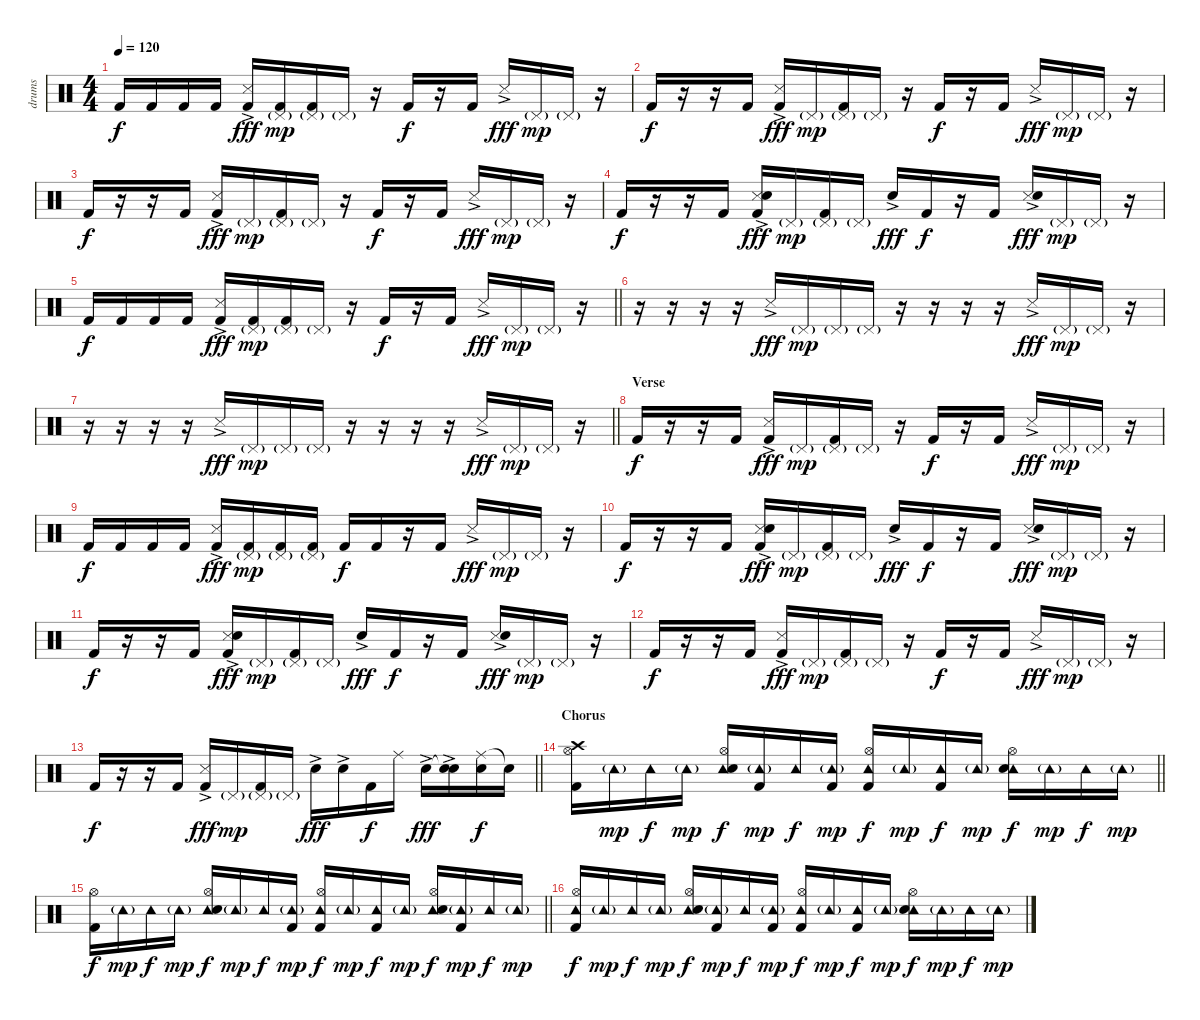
\track ("drums" "drums") {instrument percussion}
\staff {score}
\articulation defaults
\ts (4 4)
\tempo 120
\clef neutral
\ks c "Kick (hit) 2".16{dy f} "Kick (hit) 2".16 "Kick (hit) 2".16 "Kick (hit) 2".16
("Kick (hit) 2" "Snare (side stick) 3"{ac}).16{dy fff} ("Kick (hit) 2" "Pedal Hi-Hat (hit)"{g}).16{dy mp} ("Kick (hit) 2" "Pedal Hi-Hat (hit)"{g}).16 "Pedal Hi-Hat (hit)"{g}.16 r.16 "Kick (hit) 2".16{dy f} r.16 "Kick (hit) 2".16 "Snare (side stick) 3"{ac}.16{dy fff} "Pedal Hi-Hat (hit)"{g}.16{dy mp} "Pedal Hi-Hat (hit)"{g}.16 r.16 |
"Kick (hit) 2".16{dy f} r.16 r.16 "Kick (hit) 2".16 ("Kick (hit) 2" "Snare (side stick) 3"{ac}).16{dy fff} "Pedal Hi-Hat (hit)"{g}.16{dy mp} ("Kick (hit) 2" "Pedal Hi-Hat (hit)"{g}).16 "Pedal Hi-Hat (hit)"{g}.16 r.16 "Kick (hit) 2".16{dy f} r.16 "Kick (hit) 2".16 "Snare (side stick) 3"{ac}.16{dy fff} "Pedal Hi-Hat (hit)"{g}.16{dy mp} "Pedal Hi-Hat (hit)"{g}.16 r.16 |
"Kick (hit) 2".16{dy f} r.16 r.16 "Kick (hit) 2".16 ("Kick (hit) 2" "Snare (side stick) 3"{ac}).16{dy fff} "Pedal Hi-Hat (hit)"{g}.16{dy mp} ("Kick (hit) 2" "Pedal Hi-Hat (hit)"{g}).16 "Pedal Hi-Hat (hit)"{g}.16 r.16 "Kick (hit) 2".16{dy f} r.16 "Kick (hit) 2".16 "Snare (side stick) 3"{ac}.16{dy fff} "Pedal Hi-Hat (hit)"{g}.16{dy mp} "Pedal Hi-Hat (hit)"{g}.16 r.16 |
"Kick (hit) 2".16{dy f} r.16 r.16 "Kick (hit) 2".16 ("Kick (hit) 2" "Snare (side stick) 3"{ac} "Hand Clap (hit)"{ac}).16{dy fff} "Pedal Hi-Hat (hit)"{g}.16{dy mp} ("Kick (hit) 2" "Pedal Hi-Hat (hit)"{g}).16 "Pedal Hi-Hat (hit)"{g}.16 "Hand Clap (hit)"{ac}.16{dy fff} "Kick (hit) 2".16{dy f} r.16 "Kick (hit) 2".16 ("Snare (side stick) 3"{ac} "Hand Clap (hit)"{ac}).16{dy fff} "Pedal Hi-Hat (hit)"{g}.16{dy mp} "Pedal Hi-Hat (hit)"{g}.16 r.16 |
\barLineRight lightlight "Kick (hit) 2".16{dy f volume 16 balance 8} "Kick (hit) 2".16 "Kick (hit) 2".16 "Kick (hit) 2".16
("Kick (hit) 2" "Snare (side stick) 3"{ac}).16{dy fff} ("Kick (hit) 2" "Pedal Hi-Hat (hit)"{g}).16{dy mp} ("Kick (hit) 2" "Pedal Hi-Hat (hit)"{g}).16 "Pedal Hi-Hat (hit)"{g}.16 r.16 "Kick (hit) 2".16{dy f} r.16 "Kick (hit) 2".16 "Snare (side stick) 3"{ac}.16{dy fff} "Pedal Hi-Hat (hit)"{g}.16{dy mp} "Pedal Hi-Hat (hit)"{g}.16 r.16 |
r.16{volume 16 balance 8} r.16 r.16 r.16 "Snare (side stick) 3"{ac}.16{dy fff} "Pedal Hi-Hat (hit)"{g}.16{dy mp} "Pedal Hi-Hat (hit)"{g}.16 "Pedal Hi-Hat (hit)"{g}.16 r.16 r.16 r.16 r.16 "Snare (side stick) 3"{ac}.16{dy fff} "Pedal Hi-Hat (hit)"{g}.16{dy mp} "Pedal Hi-Hat (hit)"{g}.16 r.16 |
\barLineRight lightlight
r.16{volume 16 balance 8} r.16 r.16 r.16 "Snare (side stick) 3"{ac}.16{dy fff} "Pedal Hi-Hat (hit)"{g}.16{dy mp} "Pedal Hi-Hat (hit)"{g}.16 "Pedal Hi-Hat (hit)"{g}.16 r.16 r.16 r.16 r.16 "Snare (side stick) 3"{ac}.16{dy fff} "Pedal Hi-Hat (hit)"{g}.16{dy mp} "Pedal Hi-Hat (hit)"{g}.16 r.16 |
\section ("" "Verse")
"Kick (hit) 2".16{dy f} r.16 r.16 "Kick (hit) 2".16 ("Kick (hit) 2" "Snare (side stick) 3"{ac}).16{dy fff} "Pedal Hi-Hat (hit)"{g}.16{dy mp} ("Kick (hit) 2" "Pedal Hi-Hat (hit)"{g}).16 "Pedal Hi-Hat (hit)"{g}.16 r.16 "Kick (hit) 2".16{dy f} r.16 "Kick (hit) 2".16 "Snare (side stick) 3"{ac}.16{dy fff} "Pedal Hi-Hat (hit)"{g}.16{dy mp} "Pedal Hi-Hat (hit)"{g}.16 r.16 |
"Kick (hit) 2".16{dy f} "Kick (hit) 2".16 "Kick (hit) 2".16 "Kick (hit) 2".16 ("Kick (hit) 2" "Snare (side stick) 3"{ac}).16{dy fff} ("Kick (hit) 2" "Pedal Hi-Hat (hit)"{g}).16{dy mp} ("Kick (hit) 2" "Pedal Hi-Hat (hit)"{g}).16 ("Kick (hit) 2" "Pedal Hi-Hat (hit)"{g}).16 "Kick (hit) 2".16{dy f} "Kick (hit) 2".16 r.16 "Kick (hit) 2".16 "Snare (side stick) 3"{ac}.16{dy fff} "Pedal Hi-Hat (hit)"{g}.16{dy mp} "Pedal Hi-Hat (hit)"{g}.16 r.16 |
"Kick (hit) 2".16{dy f} r.16 r.16 "Kick (hit) 2".16 ("Kick (hit) 2" "Snare (side stick) 3"{ac} "Hand Clap (hit)"{ac}).16{dy fff} "Pedal Hi-Hat (hit)"{g}.16{dy mp} ("Kick (hit) 2" "Pedal Hi-Hat (hit)"{g}).16 "Pedal Hi-Hat (hit)"{g}.16 "Hand Clap (hit)"{ac}.16{dy fff} "Kick (hit) 2".16{dy f} r.16 "Kick (hit) 2".16 ("Snare (side stick) 3"{ac} "Hand Clap (hit)"{ac}).16{dy fff} "Pedal Hi-Hat (hit)"{g}.16{dy mp} "Pedal Hi-Hat (hit)"{g}.16 r.16 |
"Kick (hit) 2".16{dy f} r.16 r.16 "Kick (hit) 2".16 ("Kick (hit) 2" "Snare (side stick) 3"{ac} "Hand Clap (hit)"{ac}).16{dy fff} "Pedal Hi-Hat (hit)"{g}.16{dy mp} ("Kick (hit) 2" "Pedal Hi-Hat (hit)"{g}).16 "Pedal Hi-Hat (hit)"{g}.16 "Hand Clap (hit)"{ac}.16{dy fff} "Kick (hit) 2".16{dy f} r.16 "Kick (hit) 2".16 ("Snare (side stick) 3"{ac} "Hand Clap (hit)"{ac}).16{dy fff} "Pedal Hi-Hat (hit)"{g}.16{dy mp} "Pedal Hi-Hat (hit)"{g}.16 r.16 |
"Kick (hit) 2".16{dy f} r.16 r.16 "Kick (hit) 2".16 ("Kick (hit) 2" "Snare (side stick) 3"{ac}).16{dy fff} "Pedal Hi-Hat (hit)"{g}.16{dy mp} ("Kick (hit) 2" "Pedal Hi-Hat (hit)"{g}).16 "Pedal Hi-Hat (hit)"{g}.16 r.16 "Kick (hit) 2".16{dy f} r.16 "Kick (hit) 2".16 "Snare (side stick) 3"{ac}.16{dy fff} "Pedal Hi-Hat (hit)"{g}.16{dy mp} "Pedal Hi-Hat (hit)"{g}.16 r.16 |
\barLineRight lightlight "Kick (hit) 2".16{dy f}
r.16 r.16 "Kick (hit) 2".16 ("Kick (hit) 2" "Snare (side stick) 3"{ac}).16{dy fff} "Pedal Hi-Hat (hit)"{g}.16{dy mp} ("Kick (hit) 2" "Pedal Hi-Hat (hit)"{g}).16 "Pedal Hi-Hat (hit)"{g}.16 "Electric Snare (hit)"{ac}.16{dy fff} "Electric Snare (hit)"{ac}.16 "Kick (hit) 2".16{dy f} "Ride (middle)".16 "Electric Snare (hit)"{ac}.16{dy fff} ("Snare (hit)"{t} "Electric Snare (hit)"{ac}).16 ("Ride (middle)" "Electric Snare (hit)").16{dy f} "Snare (hit)"{t}.16 |
\section ("" "Chorus")
\barLineRight lightlight
("Hi-Hat (open)" "Crash high (hit)" "Kick (hit) 2").16 "Tambourine (hit)"{g}.16{dy mp} "Tambourine (hit)".16{dy f} "Tambourine (hit)"{g}.16{dy mp} ("Tambourine (hit)" "Hi-Hat (open)" "Electric Snare (hit)").16{dy f} ("Tambourine (hit)"{g} "Kick (hit) 2").16{dy mp} "Tambourine (hit)".16{dy f} ("Tambourine (hit)"{g} "Kick (hit) 2").16{dy mp} ("Tambourine (hit)" "Hi-Hat (open)" "Kick (hit) 2").16{dy f} "Tambourine (hit)"{g}.16{dy mp} ("Tambourine (hit)" "Kick (hit) 2").16{dy f} "Tambourine (hit)"{g}.16{dy mp} ("Tambourine (hit)" "Hi-Hat (open)" "Electric Snare (hit)").16{dy f} "Tambourine (hit)"{g}.16{dy mp} "Tambourine (hit)".16{dy f} "Tambourine (hit)"{g}.16{dy mp} |
\barLineRight lightlight
("Hi-Hat (open)" "Kick (hit) 2").16{dy f} "Tambourine (hit)"{g}.16{dy mp} "Tambourine (hit)".16{dy f} "Tambourine (hit)"{g}.16{dy mp} ("Tambourine (hit)" "Hi-Hat (open)" "Electric Snare (hit)").16{dy f} "Tambourine (hit)"{g}.16{dy mp} "Tambourine (hit)".16{dy f} ("Tambourine (hit)"{g} "Kick (hit) 2").16{dy mp} ("Tambourine (hit)" "Hi-Hat (open)" "Kick (hit) 2").16{dy f} "Tambourine (hit)"{g}.16{dy mp} ("Tambourine (hit)" "Kick (hit) 2").16{dy f} "Tambourine (hit)"{g}.16{dy mp} ("Tambourine (hit)" "Hi-Hat (open)" "Electric Snare (hit)").16{dy f} ("Tambourine (hit)"{g} "Kick (hit) 2").16{dy mp} "Tambourine (hit)".16{dy f} "Tambourine (hit)"{g}.16{dy mp} |
("Hi-Hat (open)" "Tambourine (hit)" "Kick (hit) 2").16{dy f} "Tambourine (hit)"{g}.16{dy mp} "Tambourine (hit)".16{dy f} "Tambourine (hit)"{g}.16{dy mp} ("Tambourine (hit)" "Hi-Hat (open)" "Electric Snare (hit)").16{dy f} ("Tambourine (hit)"{g} "Kick (hit) 2").16{dy mp} "Tambourine (hit)".16{dy f} ("Tambourine (hit)"{g} "Kick (hit) 2").16{dy mp} ("Tambourine (hit)" "Hi-Hat (open)" "Kick (hit) 2").16{dy f} "Tambourine (hit)"{g}.16{dy mp} ("Tambourine (hit)" "Kick (hit) 2").16{dy f} "Tambourine (hit)"{g}.16{dy mp} ("Tambourine (hit)" "Hi-Hat (open)" "Electric Snare (hit)").16{dy f} "Tambourine (hit)"{g}.16{dy mp} "Tambourine (hit)".16{dy f} "Tambourine (hit)"{g}.16{dy mp}
